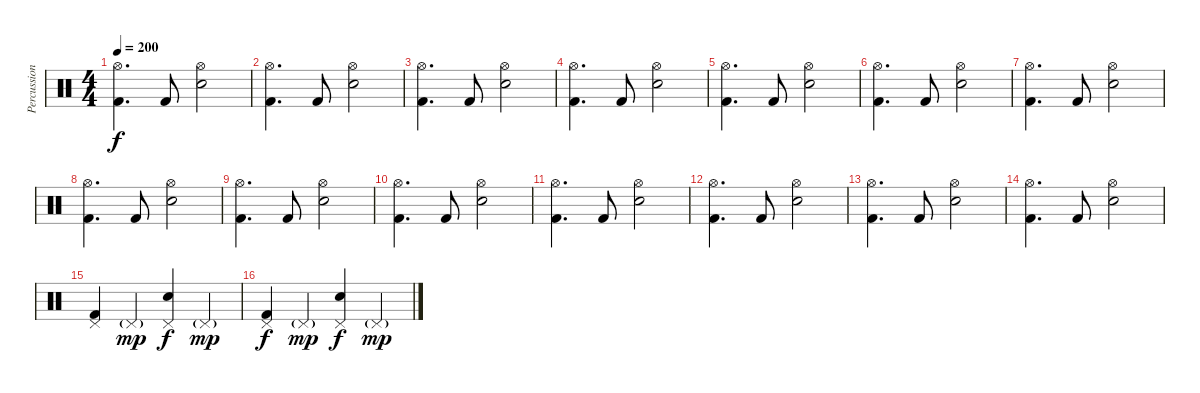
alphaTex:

\track ("Percussion" "Percussion") {instrument percussion}
\staff {score}
\articulation defaults
\ts (4 4)
\tempo 200
\clef neutral
\ks c
("Hi-Hat (open)" "Kick (hit) 2").4{d dy f} "Kick (hit) 2".8 ("Hi-Hat (open)" "Electric Snare (hit)").2 |
("Hi-Hat (open)" "Kick (hit) 2").4{d} "Kick (hit) 2".8 ("Hi-Hat (open)" "Electric Snare (hit)").2 |
("Hi-Hat (open)" "Kick (hit) 2").4{d} "Kick (hit) 2".8 ("Hi-Hat (open)" "Electric Snare (hit)").2 |
("Hi-Hat (open)" "Kick (hit) 2").4{d} "Kick (hit) 2".8 ("Hi-Hat (open)" "Electric Snare (hit)").2 |
("Hi-Hat (open)" "Kick (hit) 2").4{d} "Kick (hit) 2".8 ("Hi-Hat (open)" "Electric Snare (hit)").2 |
("Hi-Hat (open)" "Kick (hit) 2").4{d} "Kick (hit) 2".8 ("Hi-Hat (open)" "Electric Snare (hit)").2 |
("Hi-Hat (open)" "Kick (hit) 2").4{d} "Kick (hit) 2".8 ("Hi-Hat (open)" "Electric Snare (hit)").2 |
("Hi-Hat (open)" "Kick (hit) 2").4{d} "Kick (hit) 2".8 ("Hi-Hat (open)" "Electric Snare (hit)").2 |
("Hi-Hat (open)" "Kick (hit) 2").4{d} "Kick (hit) 2".8 ("Hi-Hat (open)" "Electric Snare (hit)").2 |
("Hi-Hat (open)" "Kick (hit) 2").4{d} "Kick (hit) 2".8 ("Hi-Hat (open)" "Electric Snare (hit)").2 |
("Hi-Hat (open)" "Kick (hit) 2").4{d} "Kick (hit) 2".8 ("Hi-Hat (open)" "Electric Snare (hit)").2 |
("Hi-Hat (open)" "Kick (hit) 2").4{d} "Kick (hit) 2".8 ("Hi-Hat (open)" "Electric Snare (hit)").2 |
("Hi-Hat (open)" "Kick (hit) 2").4{d} "Kick (hit) 2".8 ("Hi-Hat (open)" "Electric Snare (hit)").2 |
("Hi-Hat (open)" "Kick (hit) 2").4{d} "Kick (hit) 2".8 ("Hi-Hat (open)" "Electric Snare (hit)").2 |
("Pedal Hi-Hat (hit)" "Kick (hit) 2").4 "Pedal Hi-Hat (hit)"{g}.4{dy mp} ("Pedal Hi-Hat (hit)" "Snare (hit) 2").4{dy f} "Pedal Hi-Hat (hit)"{g}.4{dy mp} |
("Pedal Hi-Hat (hit)" "Kick (hit) 2").4{dy f} "Pedal Hi-Hat (hit)"{g}.4{dy mp} ("Pedal Hi-Hat (hit)" "Snare (hit) 2").4{dy f} "Pedal Hi-Hat (hit)"{g}.4{dy mp}
